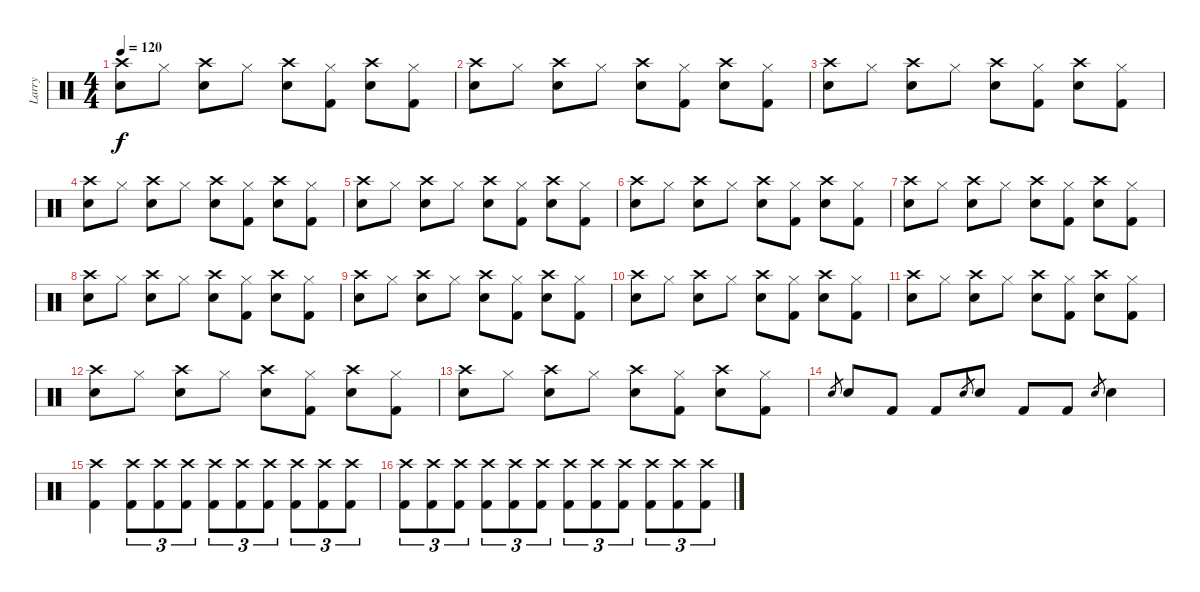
\track ("Larry" "Larry") {instrument percussion}
\staff {score}
\articulation defaults
\ts (4 4)
\tempo 120
\clef neutral
\ks c
("Crash high (hit)" "Snare (hit) 2").8{dy f} "Hi-Hat (closed)".8 ("Crash high (hit)" "Snare (hit) 2").8 "Hi-Hat (closed)".8 ("Crash high (hit)" "Snare (hit) 2").8 ("Hi-Hat (closed)" "Kick (hit) 2").8 ("Crash high (hit)" "Snare (hit) 2").8 ("Hi-Hat (closed)" "Kick (hit) 2").8 |
("Crash high (hit)" "Snare (hit) 2").8 "Hi-Hat (closed)".8 ("Crash high (hit)" "Snare (hit) 2").8 "Hi-Hat (closed)".8 ("Crash high (hit)" "Snare (hit) 2").8 ("Hi-Hat (closed)" "Kick (hit) 2").8 ("Crash high (hit)" "Snare (hit) 2").8 ("Hi-Hat (closed)" "Kick (hit) 2").8 |
("Crash high (hit)" "Snare (hit) 2").8 "Hi-Hat (closed)".8 ("Crash high (hit)" "Snare (hit) 2").8 "Hi-Hat (closed)".8 ("Crash high (hit)" "Snare (hit) 2").8 ("Hi-Hat (closed)" "Kick (hit) 2").8 ("Crash high (hit)" "Snare (hit) 2").8 ("Hi-Hat (closed)" "Kick (hit) 2").8 |
("Crash high (hit)" "Snare (hit) 2").8 "Hi-Hat (closed)".8 ("Crash high (hit)" "Snare (hit) 2").8 "Hi-Hat (closed)".8 ("Crash high (hit)" "Snare (hit) 2").8 ("Hi-Hat (closed)" "Kick (hit) 2").8 ("Crash high (hit)" "Snare (hit) 2").8 ("Hi-Hat (closed)" "Kick (hit) 2").8 |
("Crash high (hit)" "Snare (hit) 2").8 "Hi-Hat (closed)".8 ("Crash high (hit)" "Snare (hit) 2").8 "Hi-Hat (closed)".8 ("Crash high (hit)" "Snare (hit) 2").8 ("Hi-Hat (closed)" "Kick (hit) 2").8 ("Crash high (hit)" "Snare (hit) 2").8 ("Hi-Hat (closed)" "Kick (hit) 2").8 |
("Crash high (hit)" "Snare (hit) 2").8 "Hi-Hat (closed)".8 ("Crash high (hit)" "Snare (hit) 2").8 "Hi-Hat (closed)".8 ("Crash high (hit)" "Snare (hit) 2").8 ("Hi-Hat (closed)" "Kick (hit) 2").8 ("Crash high (hit)" "Snare (hit) 2").8 ("Hi-Hat (closed)" "Kick (hit) 2").8 |
("Crash high (hit)" "Snare (hit) 2").8 "Hi-Hat (closed)".8 ("Crash high (hit)" "Snare (hit) 2").8 "Hi-Hat (closed)".8 ("Crash high (hit)" "Snare (hit) 2").8 ("Hi-Hat (closed)" "Kick (hit) 2").8 ("Crash high (hit)" "Snare (hit) 2").8 ("Hi-Hat (closed)" "Kick (hit) 2").8 |
("Crash high (hit)" "Snare (hit) 2").8 "Hi-Hat (closed)".8 ("Crash high (hit)" "Snare (hit) 2").8 "Hi-Hat (closed)".8 ("Crash high (hit)" "Snare (hit) 2").8 ("Hi-Hat (closed)" "Kick (hit) 2").8 ("Crash high (hit)" "Snare (hit) 2").8 ("Hi-Hat (closed)" "Kick (hit) 2").8 |
("Crash high (hit)" "Snare (hit) 2").8 "Hi-Hat (closed)".8 ("Crash high (hit)" "Snare (hit) 2").8 "Hi-Hat (closed)".8 ("Crash high (hit)" "Snare (hit) 2").8 ("Hi-Hat (closed)" "Kick (hit) 2").8 ("Crash high (hit)" "Snare (hit) 2").8 ("Hi-Hat (closed)" "Kick (hit) 2").8 |
("Crash high (hit)" "Snare (hit) 2").8 "Hi-Hat (closed)".8 ("Crash high (hit)" "Snare (hit) 2").8 "Hi-Hat (closed)".8 ("Crash high (hit)" "Snare (hit) 2").8 ("Hi-Hat (closed)" "Kick (hit) 2").8 ("Crash high (hit)" "Snare (hit) 2").8 ("Hi-Hat (closed)" "Kick (hit) 2").8 |
("Crash high (hit)" "Snare (hit) 2").8 "Hi-Hat (closed)".8 ("Crash high (hit)" "Snare (hit) 2").8 "Hi-Hat (closed)".8 ("Crash high (hit)" "Snare (hit) 2").8 ("Hi-Hat (closed)" "Kick (hit) 2").8 ("Crash high (hit)" "Snare (hit) 2").8 ("Hi-Hat (closed)" "Kick (hit) 2").8 |
("Crash high (hit)" "Snare (hit) 2").8 "Hi-Hat (closed)".8 ("Crash high (hit)" "Snare (hit) 2").8 "Hi-Hat (closed)".8 ("Crash high (hit)" "Snare (hit) 2").8 ("Hi-Hat (closed)" "Kick (hit) 2").8 ("Crash high (hit)" "Snare (hit) 2").8 ("Hi-Hat (closed)" "Kick (hit) 2").8 |
("Crash high (hit)" "Snare (hit) 2").8 "Hi-Hat (closed)".8 ("Crash high (hit)" "Snare (hit) 2").8 "Hi-Hat (closed)".8 ("Crash high (hit)" "Snare (hit) 2").8 ("Hi-Hat (closed)" "Kick (hit) 2").8 ("Crash high (hit)" "Snare (hit) 2").8 ("Hi-Hat (closed)" "Kick (hit) 2").8 |
"Snare (hit) 2".8{gr} "Snare (hit) 2".8 "Kick (hit) 2".8 "Kick (hit) 2".8 "Snare (hit) 2".8{gr} "Snare (hit) 2".8 "Kick (hit) 2".8 "Kick (hit) 2".8 "Snare (hit) 2".8{gr} "Snare (hit) 2".4 |
("Crash high (hit)" "Kick (hit) 2").4 ("Crash high (hit)" "Kick (hit) 2").8{tu (3 2)} ("Crash high (hit)" "Kick (hit) 2").8{tu (3 2)} ("Crash high (hit)" "Kick (hit) 2").8{tu (3 2)} ("Crash high (hit)" "Kick (hit) 2").8{tu (3 2)} ("Crash high (hit)" "Kick (hit) 2").8{tu (3 2)} ("Crash high (hit)" "Kick (hit) 2").8{tu (3 2)} ("Crash high (hit)" "Kick (hit) 2").8{tu (3 2)} ("Crash high (hit)" "Kick (hit) 2").8{tu (3 2)} ("Crash high (hit)" "Kick (hit) 2").8{tu (3 2)} |
("Crash high (hit)" "Kick (hit) 2").8{tu (3 2)} ("Crash high (hit)" "Kick (hit) 2").8{tu (3 2)} ("Crash high (hit)" "Kick (hit) 2").8{tu (3 2)} ("Crash high (hit)" "Kick (hit) 2").8{tu (3 2)} ("Crash high (hit)" "Kick (hit) 2").8{tu (3 2)} ("Crash high (hit)" "Kick (hit) 2").8{tu (3 2)} ("Crash high (hit)" "Kick (hit) 2").8{tu (3 2)} ("Crash high (hit)" "Kick (hit) 2").8{tu (3 2)} ("Crash high (hit)" "Kick (hit) 2").8{tu (3 2)} ("Crash high (hit)" "Kick (hit) 2").8{tu (3 2)} ("Crash high (hit)" "Kick (hit) 2").8{tu (3 2)} ("Crash high (hit)" "Kick (hit) 2").8{tu (3 2)}
